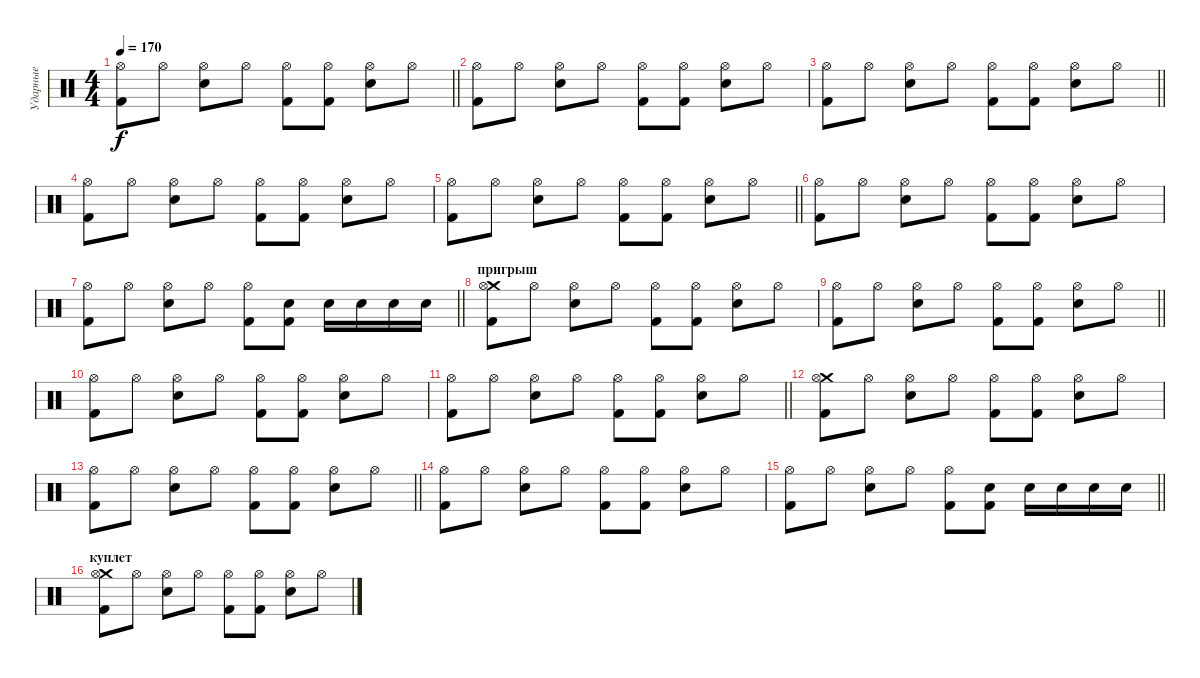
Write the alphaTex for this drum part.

\track ("Ударные" "Ударные") {instrument percussion}
\staff {score}
\articulation defaults
\ts (4 4)
\tempo 170
\clef neutral
\barLineRight lightlight
\ks c
("Hi-Hat (open)" "Kick (hit) 2").8{dy f} "Hi-Hat (open)".8 ("Hi-Hat (open)" "Electric Snare (hit)").8 "Hi-Hat (open)".8 ("Hi-Hat (open)" "Kick (hit) 2").8 ("Hi-Hat (open)" "Kick (hit) 2").8 ("Hi-Hat (open)" "Electric Snare (hit)").8 "Hi-Hat (open)".8 |
("Hi-Hat (open)" "Kick (hit) 2").8 "Hi-Hat (open)".8 ("Hi-Hat (open)" "Electric Snare (hit)").8 "Hi-Hat (open)".8 ("Hi-Hat (open)" "Kick (hit) 2").8 ("Hi-Hat (open)" "Kick (hit) 2").8 ("Hi-Hat (open)" "Electric Snare (hit)").8 "Hi-Hat (open)".8 |
\barLineRight lightlight
("Hi-Hat (open)" "Kick (hit) 2").8 "Hi-Hat (open)".8 ("Hi-Hat (open)" "Electric Snare (hit)").8 "Hi-Hat (open)".8 ("Hi-Hat (open)" "Kick (hit) 2").8 ("Hi-Hat (open)" "Kick (hit) 2").8 ("Hi-Hat (open)" "Electric Snare (hit)").8 "Hi-Hat (open)".8 |
("Hi-Hat (open)" "Kick (hit) 2").8 "Hi-Hat (open)".8 ("Hi-Hat (open)" "Electric Snare (hit)").8 "Hi-Hat (open)".8 ("Hi-Hat (open)" "Kick (hit) 2").8 ("Hi-Hat (open)" "Kick (hit) 2").8 ("Hi-Hat (open)" "Electric Snare (hit)").8 "Hi-Hat (open)".8 |
\barLineRight lightlight
("Hi-Hat (open)" "Kick (hit) 2").8 "Hi-Hat (open)".8 ("Hi-Hat (open)" "Electric Snare (hit)").8 "Hi-Hat (open)".8 ("Hi-Hat (open)" "Kick (hit) 2").8 ("Hi-Hat (open)" "Kick (hit) 2").8 ("Hi-Hat (open)" "Electric Snare (hit)").8 "Hi-Hat (open)".8 |
("Hi-Hat (open)" "Kick (hit) 2").8 "Hi-Hat (open)".8 ("Hi-Hat (open)" "Electric Snare (hit)").8 "Hi-Hat (open)".8 ("Hi-Hat (open)" "Kick (hit) 2").8 ("Hi-Hat (open)" "Kick (hit) 2").8 ("Hi-Hat (open)" "Electric Snare (hit)").8 "Hi-Hat (open)".8 |
\barLineRight lightlight
("Hi-Hat (open)" "Kick (hit) 2").8 "Hi-Hat (open)".8 ("Hi-Hat (open)" "Electric Snare (hit)").8 "Hi-Hat (open)".8 ("Hi-Hat (open)" "Kick (hit) 2").8 ("Electric Snare (hit)" "Kick (hit) 2").8 "Electric Snare (hit)".16 "Electric Snare (hit)".16 "Electric Snare (hit)".16 "Electric Snare (hit)".16 |
\section ("" "пригрыш")
("Crash medium (hit)" "Hi-Hat (open)" "Kick (hit) 2").8 "Hi-Hat (open)".8 ("Hi-Hat (open)" "Electric Snare (hit)").8 "Hi-Hat (open)".8 ("Hi-Hat (open)" "Kick (hit) 2").8 ("Hi-Hat (open)" "Kick (hit) 2").8 ("Hi-Hat (open)" "Electric Snare (hit)").8 "Hi-Hat (open)".8 |
\barLineRight lightlight
("Hi-Hat (open)" "Kick (hit) 2").8 "Hi-Hat (open)".8 ("Hi-Hat (open)" "Electric Snare (hit)").8 "Hi-Hat (open)".8 ("Hi-Hat (open)" "Kick (hit) 2").8 ("Hi-Hat (open)" "Kick (hit) 2").8 ("Hi-Hat (open)" "Electric Snare (hit)").8 "Hi-Hat (open)".8 |
("Hi-Hat (open)" "Kick (hit) 2").8 "Hi-Hat (open)".8 ("Hi-Hat (open)" "Electric Snare (hit)").8 "Hi-Hat (open)".8 ("Hi-Hat (open)" "Kick (hit) 2").8 ("Hi-Hat (open)" "Kick (hit) 2").8 ("Hi-Hat (open)" "Electric Snare (hit)").8 "Hi-Hat (open)".8 |
\barLineRight lightlight
("Hi-Hat (open)" "Kick (hit) 2").8 "Hi-Hat (open)".8 ("Hi-Hat (open)" "Electric Snare (hit)").8 "Hi-Hat (open)".8 ("Hi-Hat (open)" "Kick (hit) 2").8 ("Hi-Hat (open)" "Kick (hit) 2").8 ("Hi-Hat (open)" "Electric Snare (hit)").8 "Hi-Hat (open)".8 |
("Crash medium (hit)" "Hi-Hat (open)" "Kick (hit) 2").8 "Hi-Hat (open)".8 ("Hi-Hat (open)" "Electric Snare (hit)").8 "Hi-Hat (open)".8 ("Hi-Hat (open)" "Kick (hit) 2").8 ("Hi-Hat (open)" "Kick (hit) 2").8 ("Hi-Hat (open)" "Electric Snare (hit)").8 "Hi-Hat (open)".8 |
\barLineRight lightlight
("Hi-Hat (open)" "Kick (hit) 2").8 "Hi-Hat (open)".8 ("Hi-Hat (open)" "Electric Snare (hit)").8 "Hi-Hat (open)".8 ("Hi-Hat (open)" "Kick (hit) 2").8 ("Hi-Hat (open)" "Kick (hit) 2").8 ("Hi-Hat (open)" "Electric Snare (hit)").8 "Hi-Hat (open)".8 |
("Hi-Hat (open)" "Kick (hit) 2").8 "Hi-Hat (open)".8 ("Hi-Hat (open)" "Electric Snare (hit)").8 "Hi-Hat (open)".8 ("Hi-Hat (open)" "Kick (hit) 2").8 ("Hi-Hat (open)" "Kick (hit) 2").8 ("Hi-Hat (open)" "Electric Snare (hit)").8 "Hi-Hat (open)".8 |
\barLineRight lightlight
("Hi-Hat (open)" "Kick (hit) 2").8 "Hi-Hat (open)".8 ("Hi-Hat (open)" "Electric Snare (hit)").8 "Hi-Hat (open)".8 ("Hi-Hat (open)" "Kick (hit) 2").8 ("Electric Snare (hit)" "Kick (hit) 2").8 "Electric Snare (hit)".16 "Electric Snare (hit)".16 "Electric Snare (hit)".16 "Electric Snare (hit)".16 |
\section ("" "куплет")
("Crash medium (hit)" "Hi-Hat (open)" "Kick (hit) 2").8 "Hi-Hat (open)".8 ("Hi-Hat (open)" "Electric Snare (hit)").8 "Hi-Hat (open)".8 ("Hi-Hat (open)" "Kick (hit) 2").8 ("Hi-Hat (open)" "Kick (hit) 2").8 ("Hi-Hat (open)" "Electric Snare (hit)").8 "Hi-Hat (open)".8
